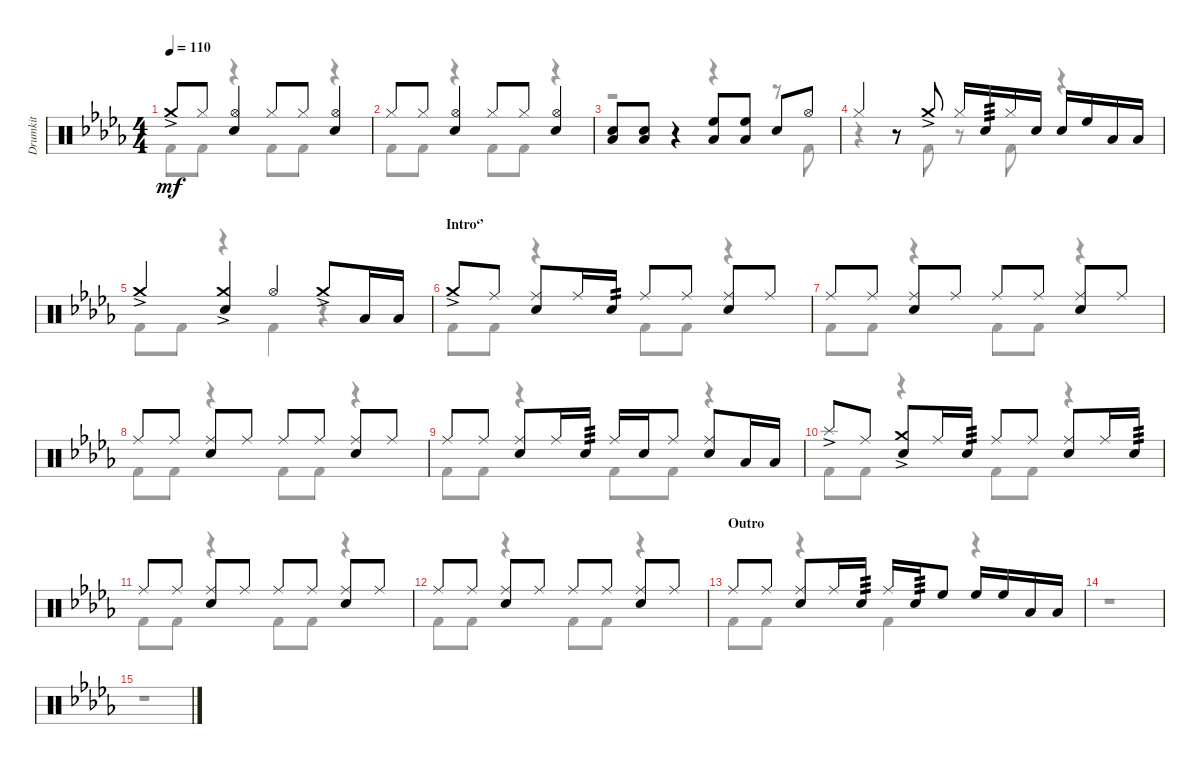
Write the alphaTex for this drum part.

\track ("Drumkit" "Drumkit") {instrument percussion}
\staff {score}
\articulation defaults
\voice
\ts (4 4)
\tempo 110
\clef neutral
\ks db "Crash medium (hit)"{ac}.8{dy mf} "Hi-Hat (closed)".8
("Hi-Hat (open)" "Snare (hit) 2").4 "Hi-Hat (closed)".8 "Hi-Hat (closed)".8 ("Hi-Hat (open)" "Snare (hit) 2").4 |
"Hi-Hat (closed)".8 "Hi-Hat (closed)".8 ("Hi-Hat (open)" "Snare (hit) 2").4 "Hi-Hat (closed)".8 "Hi-Hat (closed)".8 ("Hi-Hat (open)" "Snare (hit) 2").4 |
("Snare (hit) 2" "Low Floor Tom (hit)").8 ("Snare (hit) 2" "Low Floor Tom (hit)").8 r.4 ("Low Floor Tom (hit)" "High Floor Tom (hit)").8 ("Low Floor Tom (hit)" "High Floor Tom (hit)").8 "Snare (hit) 2".8 "Hi-Hat (open)".8 |
"Hi-Hat (closed)".4 r.8 "Crash medium (hit)"{ac}.8 "Hi-Hat (closed)".16 "Snare (hit) 2".16{tp 3} "Hi-Hat (closed)".16 "Snare (hit) 2".16 "Snare (hit) 2".16 "High Floor Tom (hit)".16 "Low Floor Tom (hit)".16 "Low Floor Tom (hit)".16 |
"Crash medium (hit)"{ac}.4 ("Crash medium (hit)"{ac} "Snare (hit) 2").4 "Hi-Hat (open)".4 "Crash medium (hit)"{ac}.8 "Low Floor Tom (hit)".16 "Low Floor Tom (hit)".16 |
\section ("" "Intro‘’")
"Crash medium (hit)"{ac}.8 "Ride (middle)".8 ("Snare (hit) 2" "Ride (middle)").8 "Ride (middle)".16 "Snare (hit) 2".16{tp 2} "Ride (middle)".8 "Ride (middle)".8 ("Snare (hit) 2" "Ride (middle)").8 "Ride (middle)".8 |
"Ride (middle)".8 "Ride (middle)".8 ("Snare (hit) 2" "Ride (middle)").8 "Ride (middle)".8 "Ride (middle)".8 "Ride (middle)".8 ("Snare (hit) 2" "Ride (middle)").8 "Ride (middle)".8 |
"Ride (middle)".8 "Ride (middle)".8 ("Snare (hit) 2" "Ride (middle)").8 "Ride (middle)".8 "Ride (middle)".8 "Ride (middle)".8 ("Snare (hit) 2" "Ride (middle)").8 "Ride (middle)".8 |
"Ride (middle)".8 "Ride (middle)".8 ("Snare (hit) 2" "Ride (middle)").8 "Ride (middle)".16 "Snare (hit) 2".16{tp 3} "Ride (middle)".16 "Snare (hit) 2".16 "Ride (middle)".8 ("Ride (middle)" "Snare (hit) 2").8 "Low Floor Tom (hit)".16 "Low Floor Tom (hit)".16 |
"Splash (hit)"{ac}.8 "Ride (middle)".8 ("Snare (hit) 2" "Crash medium (hit)"{ac}).8 "Ride (middle)".16 "Snare (hit) 2".16{tp 3} "Ride (middle)".8 "Ride (middle)".8 ("Ride (middle)" "Snare (hit) 2").8 "Ride (middle)".16 "Snare (hit) 2".16{tp 3} |
"Ride (middle)".8 "Ride (middle)".8 ("Snare (hit) 2" "Ride (middle)").8 "Ride (middle)".8 "Ride (middle)".8 "Ride (middle)".8 ("Snare (hit) 2" "Ride (middle)").8 "Ride (middle)".8 |
"Ride (middle)".8 "Ride (middle)".8 ("Snare (hit) 2" "Ride (middle)").8 "Ride (middle)".8 "Ride (middle)".8 "Ride (middle)".8 ("Snare (hit) 2" "Ride (middle)").8 "Ride (middle)".8 |
\section ("" "Outro")
"Ride (middle)".8 "Ride (middle)".8 ("Snare (hit) 2" "Ride (middle)").8 "Ride (middle)".16 "Snare (hit) 2".16{tp 3} "Ride (middle)".16 "Snare (hit) 2".16{tp 3} "High Floor Tom (hit)".8 "High Floor Tom (hit)".16 "High Floor Tom (hit)".16 "Low Floor Tom (hit)".16 "Low Floor Tom (hit)".16 |
|
\voice
\clef neutral
\ottava regular
\simile none
\ks db "Kick (hit) 2".8{dy mf} "Kick (hit) 2".8
r.4 "Kick (hit) 2".8 "Kick (hit) 2".8 r.4 |
"Kick (hit) 2".8 "Kick (hit) 2".8 r.4 "Kick (hit) 2".8 "Kick (hit) 2".8 r.4 |
r.2 r.4 r.8 "Kick (hit) 2".8 |
r.4 r.8 "Kick (hit) 2".8 r.8 "Kick (hit) 2".8 r.4 |
"Kick (hit) 2".8 "Kick (hit) 2".8 r.4 "Kick (hit) 2".4 r.4 |
"Kick (hit) 2".8 "Kick (hit) 2".8 r.4 "Kick (hit) 2".8 "Kick (hit) 2".8 r.4 |
"Kick (hit) 2".8 "Kick (hit) 2".8 r.4 "Kick (hit) 2".8 "Kick (hit) 2".8 r.4 |
"Kick (hit) 2".8 "Kick (hit) 2".8 r.4 "Kick (hit) 2".8 "Kick (hit) 2".8 r.4 |
"Kick (hit) 2".8 "Kick (hit) 2".8 r.4 "Kick (hit) 2".8 "Kick (hit) 2".8 r.4 |
"Kick (hit) 2".8 "Kick (hit) 2".8 r.4 "Kick (hit) 2".8 "Kick (hit) 2".8 r.4 |
"Kick (hit) 2".8 "Kick (hit) 2".8 r.4 "Kick (hit) 2".8 "Kick (hit) 2".8 r.4 |
"Kick (hit) 2".8 "Kick (hit) 2".8 r.4 "Kick (hit) 2".8 "Kick (hit) 2".8 r.4 |
"Kick (hit) 2".8 "Kick (hit) 2".8 r.4 "Kick (hit) 2".4 r.4 |
r.1 |
r.1
